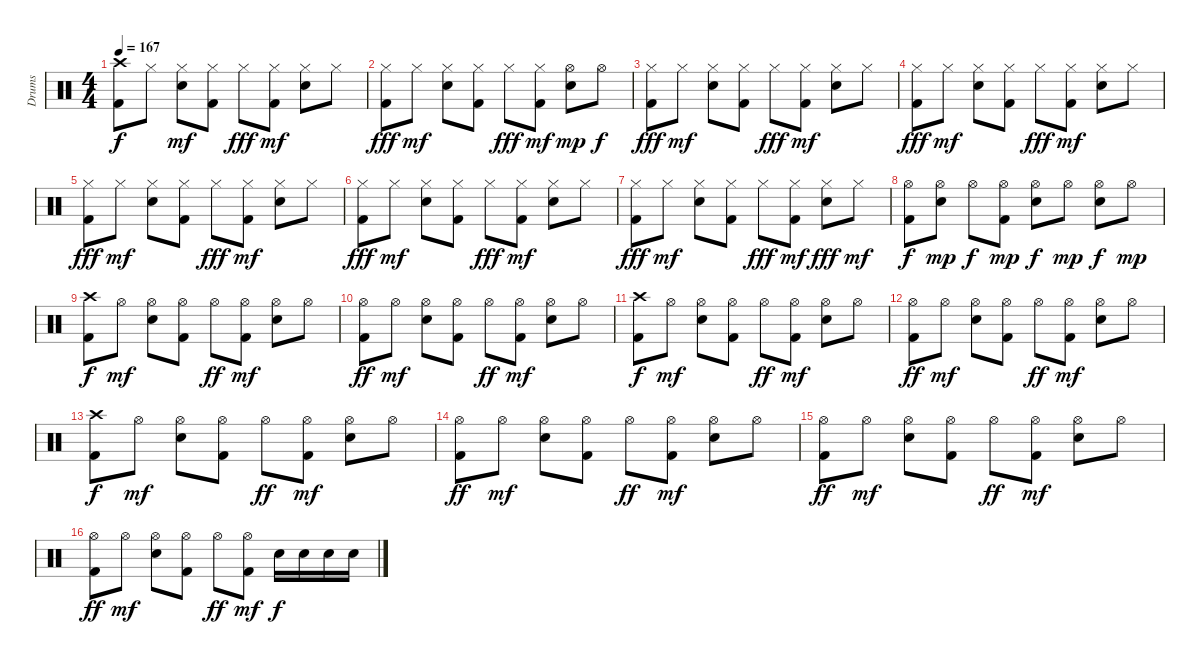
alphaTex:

\track ("Drums" "Drums") {instrument percussion}
\staff {score}
\articulation defaults
\ts (4 4)
\tempo 167
\clef neutral
\ks c
("Crash high (hit)" "Kick (hit) 2").8{dy f} "Hi-Hat (closed)".8 ("Hi-Hat (closed)" "Electric Snare (hit)").8{dy mf} ("Hi-Hat (closed)" "Kick (hit) 2").8 "Hi-Hat (closed)".8{dy fff} ("Hi-Hat (closed)" "Kick (hit) 2").8{dy mf} ("Hi-Hat (closed)" "Electric Snare (hit)").8 "Hi-Hat (closed)".8 |
("Hi-Hat (closed)" "Kick (hit) 2").8{dy fff} "Hi-Hat (closed)".8{dy mf} ("Hi-Hat (closed)" "Electric Snare (hit)").8 ("Hi-Hat (closed)" "Kick (hit) 2").8 "Hi-Hat (closed)".8{dy fff} ("Hi-Hat (closed)" "Kick (hit) 2").8{dy mf} ("Hi-Hat (open)" "Electric Snare (hit)").8{dy mp} "Hi-Hat (open)".8{dy f} |
("Hi-Hat (closed)" "Kick (hit) 2").8{dy fff} "Hi-Hat (closed)".8{dy mf} ("Hi-Hat (closed)" "Electric Snare (hit)").8 ("Hi-Hat (closed)" "Kick (hit) 2").8 "Hi-Hat (closed)".8{dy fff} ("Hi-Hat (closed)" "Kick (hit) 2").8{dy mf} ("Hi-Hat (closed)" "Electric Snare (hit)").8 "Hi-Hat (closed)".8 |
("Hi-Hat (closed)" "Kick (hit) 2").8{dy fff} "Hi-Hat (closed)".8{dy mf} ("Hi-Hat (closed)" "Electric Snare (hit)").8 ("Hi-Hat (closed)" "Kick (hit) 2").8 "Hi-Hat (closed)".8{dy fff} ("Hi-Hat (closed)" "Kick (hit) 2").8{dy mf} ("Hi-Hat (closed)" "Electric Snare (hit)").8 "Hi-Hat (closed)".8 |
("Hi-Hat (closed)" "Kick (hit) 2").8{dy fff} "Hi-Hat (closed)".8{dy mf} ("Hi-Hat (closed)" "Electric Snare (hit)").8 ("Hi-Hat (closed)" "Kick (hit) 2").8 "Hi-Hat (closed)".8{dy fff} ("Hi-Hat (closed)" "Kick (hit) 2").8{dy mf} ("Hi-Hat (closed)" "Electric Snare (hit)").8 "Hi-Hat (closed)".8 |
("Hi-Hat (closed)" "Kick (hit) 2").8{dy fff} "Hi-Hat (closed)".8{dy mf} ("Hi-Hat (closed)" "Electric Snare (hit)").8 ("Hi-Hat (closed)" "Kick (hit) 2").8 "Hi-Hat (closed)".8{dy fff} ("Hi-Hat (closed)" "Kick (hit) 2").8{dy mf} ("Hi-Hat (closed)" "Electric Snare (hit)").8 "Hi-Hat (closed)".8 |
("Hi-Hat (closed)" "Kick (hit) 2").8{dy fff} "Hi-Hat (closed)".8{dy mf} ("Hi-Hat (closed)" "Electric Snare (hit)").8 ("Hi-Hat (closed)" "Kick (hit) 2").8 "Hi-Hat (closed)".8{dy fff} ("Hi-Hat (closed)" "Kick (hit) 2").8{dy mf} ("Hi-Hat (closed)" "Electric Snare (hit)").8{dy fff} "Hi-Hat (closed)".8{dy mf} |
("Hi-Hat (open)" "Kick (hit) 2").8{dy f} ("Hi-Hat (open)" "Electric Snare (hit)").8{dy mp} "Hi-Hat (open)".8{dy f} ("Hi-Hat (open)" "Kick (hit) 2").8{dy mp} ("Hi-Hat (open)" "Electric Snare (hit)").8{dy f} "Hi-Hat (open)".8{dy mp} ("Hi-Hat (open)" "Electric Snare (hit)").8{dy f} "Hi-Hat (open)".8{dy mp} |
("Crash high (hit)" "Kick (hit) 2").8{dy f} "Hi-Hat (open)".8{dy mf} ("Hi-Hat (open)" "Electric Snare (hit)").8 ("Hi-Hat (open)" "Kick (hit) 2").8 "Hi-Hat (open)".8{dy ff} ("Hi-Hat (open)" "Kick (hit) 2").8{dy mf} ("Hi-Hat (open)" "Electric Snare (hit)").8 "Hi-Hat (open)".8 |
("Hi-Hat (open)" "Kick (hit) 2").8{dy ff} "Hi-Hat (open)".8{dy mf} ("Hi-Hat (open)" "Electric Snare (hit)").8 ("Hi-Hat (open)" "Kick (hit) 2").8 "Hi-Hat (open)".8{dy ff} ("Hi-Hat (open)" "Kick (hit) 2").8{dy mf} ("Hi-Hat (open)" "Electric Snare (hit)").8 "Hi-Hat (open)".8 |
("Crash high (hit)" "Kick (hit) 2").8{dy f} "Hi-Hat (open)".8{dy mf} ("Hi-Hat (open)" "Electric Snare (hit)").8 ("Hi-Hat (open)" "Kick (hit) 2").8 "Hi-Hat (open)".8{dy ff} ("Hi-Hat (open)" "Kick (hit) 2").8{dy mf} ("Hi-Hat (open)" "Electric Snare (hit)").8 "Hi-Hat (open)".8 |
("Hi-Hat (open)" "Kick (hit) 2").8{dy ff} "Hi-Hat (open)".8{dy mf} ("Hi-Hat (open)" "Electric Snare (hit)").8 ("Hi-Hat (open)" "Kick (hit) 2").8 "Hi-Hat (open)".8{dy ff} ("Hi-Hat (open)" "Kick (hit) 2").8{dy mf} ("Hi-Hat (open)" "Electric Snare (hit)").8 "Hi-Hat (open)".8 |
("Crash high (hit)" "Kick (hit) 2").8{dy f} "Hi-Hat (open)".8{dy mf} ("Hi-Hat (open)" "Electric Snare (hit)").8 ("Hi-Hat (open)" "Kick (hit) 2").8 "Hi-Hat (open)".8{dy ff} ("Hi-Hat (open)" "Kick (hit) 2").8{dy mf} ("Hi-Hat (open)" "Electric Snare (hit)").8 "Hi-Hat (open)".8 |
("Hi-Hat (open)" "Kick (hit) 2").8{dy ff} "Hi-Hat (open)".8{dy mf} ("Hi-Hat (open)" "Electric Snare (hit)").8 ("Hi-Hat (open)" "Kick (hit) 2").8 "Hi-Hat (open)".8{dy ff} ("Hi-Hat (open)" "Kick (hit) 2").8{dy mf} ("Hi-Hat (open)" "Electric Snare (hit)").8 "Hi-Hat (open)".8 |
("Hi-Hat (open)" "Kick (hit) 2").8{dy ff} "Hi-Hat (open)".8{dy mf} ("Hi-Hat (open)" "Electric Snare (hit)").8 ("Hi-Hat (open)" "Kick (hit) 2").8 "Hi-Hat (open)".8{dy ff} ("Hi-Hat (open)" "Kick (hit) 2").8{dy mf} ("Hi-Hat (open)" "Electric Snare (hit)").8 "Hi-Hat (open)".8 |
("Hi-Hat (open)" "Kick (hit) 2").8{dy ff} "Hi-Hat (open)".8{dy mf} ("Hi-Hat (open)" "Electric Snare (hit)").8 ("Hi-Hat (open)" "Kick (hit) 2").8 "Hi-Hat (open)".8{dy ff} ("Hi-Hat (open)" "Kick (hit) 2").8{dy mf} "Electric Snare (hit)".16{dy f} "Electric Snare (hit)".16 "Electric Snare (hit)".16 "Electric Snare (hit)".16
